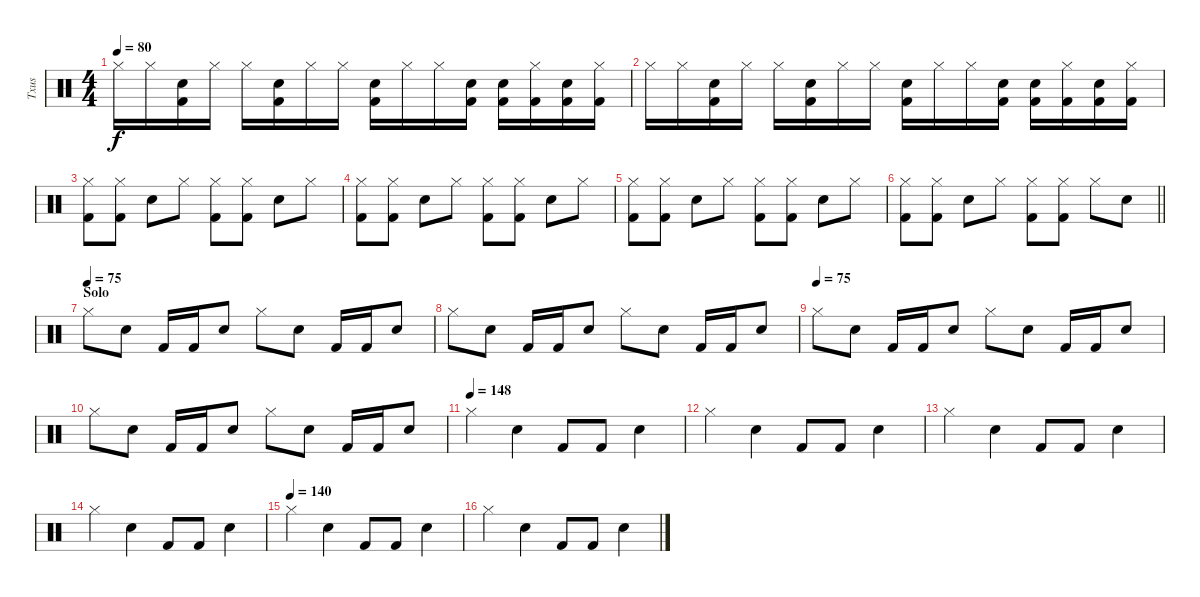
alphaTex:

\track ("Txus" "Txus") {instrument percussion}
\staff {score}
\articulation defaults
\ts (4 4)
\tempo 80
\clef neutral
\ks c "Hi-Hat (closed)".16{dy f} "Hi-Hat (closed)".16
("Snare (hit) 2" "Kick (hit) 2").16 "Hi-Hat (closed)".16 "Hi-Hat (closed)".16 ("Snare (hit) 2" "Kick (hit) 2").16 "Hi-Hat (closed)".16 "Hi-Hat (closed)".16 ("Snare (hit) 2" "Kick (hit) 2").16 "Hi-Hat (closed)".16 "Hi-Hat (closed)".16 ("Snare (hit) 2" "Kick (hit) 2").16 ("Snare (hit) 2" "Kick (hit) 2").16 ("Hi-Hat (closed)" "Kick (hit) 2").16 ("Snare (hit) 2" "Kick (hit) 2").16 ("Hi-Hat (closed)" "Kick (hit) 2").16 |
"Hi-Hat (closed)".16 "Hi-Hat (closed)".16 ("Snare (hit) 2" "Kick (hit) 2").16 "Hi-Hat (closed)".16 "Hi-Hat (closed)".16 ("Snare (hit) 2" "Kick (hit) 2").16 "Hi-Hat (closed)".16 "Hi-Hat (closed)".16 ("Snare (hit) 2" "Kick (hit) 2").16 "Hi-Hat (closed)".16 "Hi-Hat (closed)".16 ("Snare (hit) 2" "Kick (hit) 2").16 ("Snare (hit) 2" "Kick (hit) 2").16 ("Hi-Hat (closed)" "Kick (hit) 2").16 ("Snare (hit) 2" "Kick (hit) 2").16 ("Hi-Hat (closed)" "Kick (hit) 2").16 |
("Hi-Hat (closed)" "Kick (hit) 2").8 ("Hi-Hat (closed)" "Kick (hit) 2").8 "Electric Snare (hit)".8 "Hi-Hat (closed)".8 ("Hi-Hat (closed)" "Kick (hit) 2").8 ("Hi-Hat (closed)" "Kick (hit) 2").8 "Electric Snare (hit)".8 "Hi-Hat (closed)".8 |
("Hi-Hat (closed)" "Kick (hit) 2").8 ("Hi-Hat (closed)" "Kick (hit) 2").8 "Electric Snare (hit)".8 "Hi-Hat (closed)".8 ("Hi-Hat (closed)" "Kick (hit) 2").8 ("Hi-Hat (closed)" "Kick (hit) 2").8 "Electric Snare (hit)".8 "Hi-Hat (closed)".8 |
("Hi-Hat (closed)" "Kick (hit) 2").8 ("Hi-Hat (closed)" "Kick (hit) 2").8 "Electric Snare (hit)".8 "Hi-Hat (closed)".8 ("Hi-Hat (closed)" "Kick (hit) 2").8 ("Hi-Hat (closed)" "Kick (hit) 2").8 "Electric Snare (hit)".8 "Hi-Hat (closed)".8 |
\barLineRight lightlight
("Hi-Hat (closed)" "Kick (hit) 2").8 ("Hi-Hat (closed)" "Kick (hit) 2").8 "Electric Snare (hit)".8 "Hi-Hat (closed)".8 ("Hi-Hat (closed)" "Kick (hit) 2").8 ("Hi-Hat (closed)" "Kick (hit) 2").8 "Hi-Hat (closed)".8 "Snare (hit) 2".8 |
\section ("" "Solo")
\tempo 92
\tempo (75)
"Hi-Hat (closed)".8 "Snare (hit) 2".8 "Kick (hit) 2".16 "Kick (hit) 2".16 "Snare (hit) 2".8 "Hi-Hat (closed)".8 "Snare (hit) 2".8 "Kick (hit) 2".16 "Kick (hit) 2".16 "Snare (hit) 2".8 |
"Hi-Hat (closed)".8 "Snare (hit) 2".8 "Kick (hit) 2".16 "Kick (hit) 2".16 "Snare (hit) 2".8 "Hi-Hat (closed)".8 "Snare (hit) 2".8 "Kick (hit) 2".16 "Kick (hit) 2".16 "Snare (hit) 2".8 |
\tempo 92
\tempo (75)
"Hi-Hat (closed)".8 "Snare (hit) 2".8 "Kick (hit) 2".16 "Kick (hit) 2".16 "Snare (hit) 2".8 "Hi-Hat (closed)".8 "Snare (hit) 2".8 "Kick (hit) 2".16 "Kick (hit) 2".16 "Snare (hit) 2".8 |
"Hi-Hat (closed)".8 "Snare (hit) 2".8 "Kick (hit) 2".16 "Kick (hit) 2".16 "Snare (hit) 2".8 "Hi-Hat (closed)".8 "Snare (hit) 2".8 "Kick (hit) 2".16 "Kick (hit) 2".16 "Snare (hit) 2".8 |
\tempo (148)
"Hi-Hat (closed)".4 "Snare (hit) 2".4 "Kick (hit) 2".8 "Kick (hit) 2".8 "Snare (hit) 2".4 |
"Hi-Hat (closed)".4 "Snare (hit) 2".4 "Kick (hit) 2".8 "Kick (hit) 2".8 "Snare (hit) 2".4 |
"Hi-Hat (closed)".4 "Snare (hit) 2".4 "Kick (hit) 2".8 "Kick (hit) 2".8 "Snare (hit) 2".4 |
"Hi-Hat (closed)".4 "Snare (hit) 2".4 "Kick (hit) 2".8 "Kick (hit) 2".8 "Snare (hit) 2".4 |
\tempo (140)
"Hi-Hat (closed)".4 "Snare (hit) 2".4 "Kick (hit) 2".8 "Kick (hit) 2".8 "Snare (hit) 2".4 |
"Hi-Hat (closed)".4 "Snare (hit) 2".4 "Kick (hit) 2".8 "Kick (hit) 2".8 "Snare (hit) 2".4
